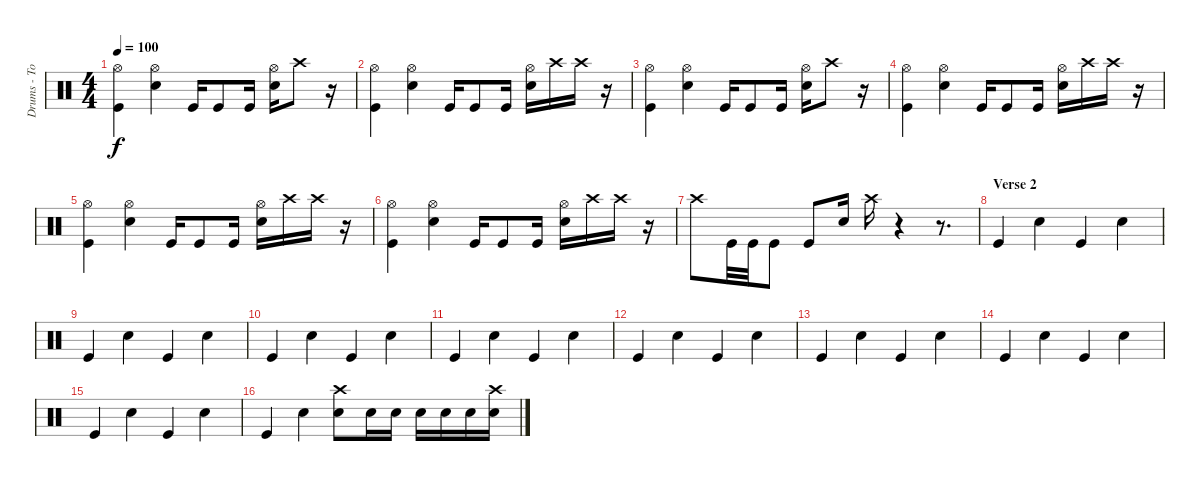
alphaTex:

\track ("Drums - Tommy" "Drums - To") {instrument percussion}
\staff {score}
\articulation defaults
\ts (4 4)
\tempo 100
\clef neutral
\ks c
("Hi-Hat (open)" "Kick (hit)").4{dy f} ("Hi-Hat (open)" "Snare (hit) 2").4 "Kick (hit)".16 "Kick (hit)".8 "Kick (hit)".16 ("Hi-Hat (open)" "Snare (hit) 2").16 "Crash high (hit)".8 r.16 |
("Hi-Hat (open)" "Kick (hit)").4 ("Hi-Hat (open)" "Snare (hit) 2").4 "Kick (hit)".16 "Kick (hit)".8 "Kick (hit)".16 ("Hi-Hat (open)" "Snare (hit) 2").16 "Crash high (hit)".16 "Crash high (hit)".16 r.16 |
("Hi-Hat (open)" "Kick (hit)").4 ("Hi-Hat (open)" "Snare (hit) 2").4 "Kick (hit)".16 "Kick (hit)".8 "Kick (hit)".16 ("Hi-Hat (open)" "Snare (hit) 2").16 "Crash high (hit)".8 r.16 |
("Hi-Hat (open)" "Kick (hit)").4 ("Hi-Hat (open)" "Snare (hit) 2").4 "Kick (hit)".16 "Kick (hit)".8 "Kick (hit)".16 ("Hi-Hat (open)" "Snare (hit) 2").16 "Crash high (hit)".16 "Crash high (hit)".16 r.16 |
("Hi-Hat (open)" "Kick (hit)").4 ("Hi-Hat (open)" "Snare (hit) 2").4 "Kick (hit)".16 "Kick (hit)".8 "Kick (hit)".16 ("Hi-Hat (open)" "Snare (hit) 2").16 "Crash high (hit)".16 "Crash high (hit)".16 r.16 |
("Hi-Hat (open)" "Kick (hit)").4 ("Hi-Hat (open)" "Snare (hit) 2").4 "Kick (hit)".16 "Kick (hit)".8 "Kick (hit)".16 ("Hi-Hat (open)" "Snare (hit) 2").16 "Crash high (hit)".16 "Crash high (hit)".16 r.16 |
"Crash high (hit)".8 "Kick (hit)".32 "Kick (hit)".32 "Kick (hit)".8 "Kick (hit)".8 "Snare (hit) 2".16 "Crash high (hit)".16 r.4 r.8{d} |
\section ("" "Verse 2")
"Kick (hit)".4 "Snare (hit) 2".4 "Kick (hit)".4 "Snare (hit) 2".4 |
"Kick (hit)".4 "Snare (hit) 2".4 "Kick (hit)".4 "Snare (hit) 2".4 |
"Kick (hit)".4 "Snare (hit) 2".4 "Kick (hit)".4 "Snare (hit) 2".4 |
"Kick (hit)".4 "Snare (hit) 2".4 "Kick (hit)".4 "Snare (hit) 2".4 |
"Kick (hit)".4 "Snare (hit) 2".4 "Kick (hit)".4 "Snare (hit) 2".4 |
"Kick (hit)".4 "Snare (hit) 2".4 "Kick (hit)".4 "Snare (hit) 2".4 |
"Kick (hit)".4 "Snare (hit) 2".4 "Kick (hit)".4 "Snare (hit) 2".4 |
"Kick (hit)".4 "Snare (hit) 2".4 "Kick (hit)".4 "Snare (hit) 2".4 |
"Kick (hit)".4 "Snare (hit) 2".4 ("Crash high (hit)" "Snare (hit) 2").8 "Snare (hit) 2".16 "Snare (hit) 2".16 "Snare (hit) 2".16 "Snare (hit) 2".16 "Snare (hit) 2".16 ("Crash high (hit)" "Snare (hit) 2").16
